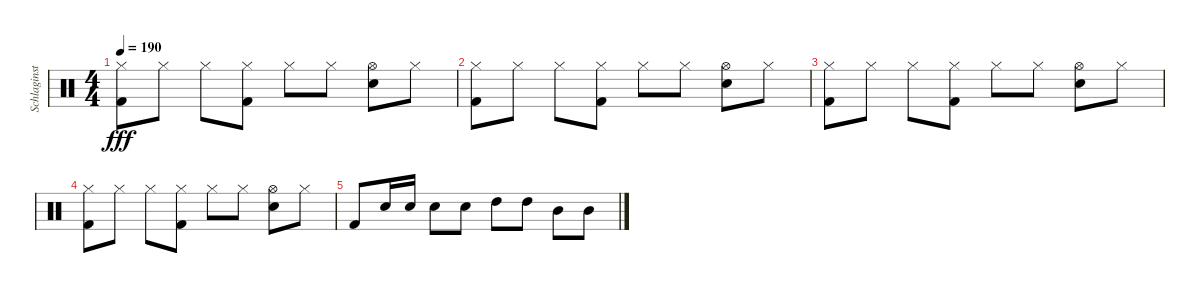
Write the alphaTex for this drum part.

\track ("Schlaginstrumente - Auswahl" "Schlaginst") {instrument percussion}
\staff {score}
\articulation defaults
\ts (4 4)
\tempo 190
\clef neutral
\ks c
("Hi-Hat (closed)" "Kick (hit) 2").8{dy fff} "Hi-Hat (closed)".8 "Hi-Hat (closed)".8 ("Hi-Hat (closed)" "Kick (hit) 2").8 "Hi-Hat (closed)".8 "Hi-Hat (closed)".8 ("Hi-Hat (open)" "Electric Snare (hit)").8 "Hi-Hat (closed)".8 |
("Hi-Hat (closed)" "Kick (hit) 2").8 "Hi-Hat (closed)".8 "Hi-Hat (closed)".8 ("Hi-Hat (closed)" "Kick (hit) 2").8 "Hi-Hat (closed)".8 "Hi-Hat (closed)".8 ("Hi-Hat (open)" "Electric Snare (hit)").8 "Hi-Hat (closed)".8 |
("Hi-Hat (closed)" "Kick (hit) 2").8 "Hi-Hat (closed)".8 "Hi-Hat (closed)".8 ("Hi-Hat (closed)" "Kick (hit) 2").8 "Hi-Hat (closed)".8 "Hi-Hat (closed)".8 ("Hi-Hat (open)" "Electric Snare (hit)").8 "Hi-Hat (closed)".8 |
("Hi-Hat (closed)" "Kick (hit) 2").8 "Hi-Hat (closed)".8 "Hi-Hat (closed)".8 ("Hi-Hat (closed)" "Kick (hit) 2").8 "Hi-Hat (closed)".8 "Hi-Hat (closed)".8 ("Hi-Hat (open)" "Electric Snare (hit)").8 "Hi-Hat (closed)".8 |
"Kick (hit) 2".8 "Electric Snare (hit)".16 "Electric Snare (hit)".16 "Electric Snare (hit)".8 "Electric Snare (hit)".8 "High Tom (hit)".8 "High Tom (hit)".8 "Mid Tom (hit)".8 "Mid Tom (hit)".8
